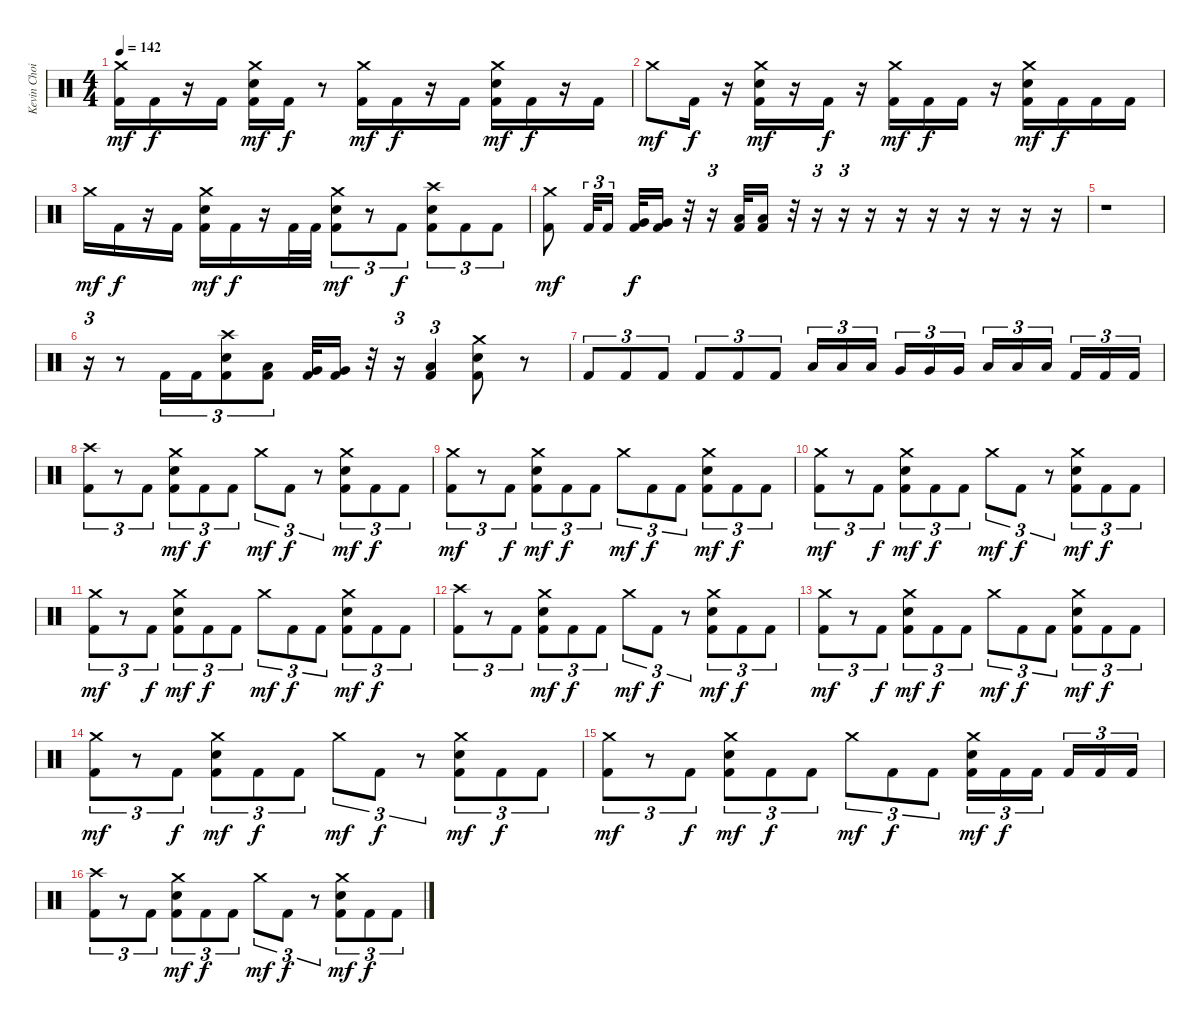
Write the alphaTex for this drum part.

\track ("Kevin Choiral" "Kevin Choi") {instrument percussion}
\staff
\articulation defaults
\ts (4 4)
\tempo 142
\clef neutral
\ks c
("Crash medium (hit)" "Kick (hit) 2").16{dy mf} "Kick (hit) 2".16{dy f} r.16 "Kick (hit) 2".16 ("Crash medium (hit)" "Electric Snare (hit)" "Kick (hit) 2").16{dy mf} "Kick (hit) 2".16{dy f} r.8 ("Crash medium (hit)" "Kick (hit) 2").16{dy mf} "Kick (hit) 2".16{dy f} r.16 "Kick (hit) 2".16 ("Crash medium (hit)" "Electric Snare (hit)" "Kick (hit) 2").16{dy mf} "Kick (hit) 2".16{dy f} r.16 "Kick (hit) 2".16 |
"Crash medium (hit)".8{dy mf} "Kick (hit) 2".16{dy f} r.16 ("Crash medium (hit)" "Electric Snare (hit)" "Kick (hit) 2").16{dy mf} r.16 "Kick (hit) 2".16{dy f} r.16 ("Crash medium (hit)" "Kick (hit) 2").16{dy mf} "Kick (hit) 2".16{dy f} "Kick (hit) 2".16 r.16 ("Crash medium (hit)" "Electric Snare (hit)" "Kick (hit) 2").16{dy mf} "Kick (hit) 2".16{dy f} "Kick (hit) 2".16 "Kick (hit) 2".16 |
"Crash medium (hit)".16{dy mf} "Kick (hit) 2".16{dy f} r.16 "Kick (hit) 2".16 ("Crash medium (hit)" "Electric Snare (hit)" "Kick (hit) 2").16{dy mf} "Kick (hit) 2".16{dy f} r.16 "Kick (hit) 2".32 "Kick (hit) 2".32 ("Crash medium (hit)" "Electric Snare (hit)" "Kick (hit) 2").8{tu (3 2) dy mf} r.8{tu (3 2)} "Kick (hit) 2".8{tu (3 2) dy f} ("Crash high (hit)" "Electric Snare (hit)" "Kick (hit) 2").8{tu (3 2)} "Kick (hit) 2".8{tu (3 2)} "Kick (hit) 2".8{tu (3 2)} |
("Crash medium (hit)" "Kick (hit) 2").8{dy mf} "Kick (hit) 2".32{tu (3 2)} "Kick (hit) 2".16{tu (3 2) beam splitsecondary} ("Very Low Tom (hit)" "Kick (hit) 2").32{dy f} ("Very Low Tom (hit)" "Kick (hit) 2").16 r.32 r.16{tu (3 2)} ("Low Floor Tom (hit)" "Kick (hit) 2").32 ("Low Floor Tom (hit)" "Kick (hit) 2").16 r.32 r.16{tu (3 2)} r.16{tu (3 2)} r.16 r.16 r.16 r.16 r.16 r.16 r.16 |
r.1 |
r.16{tu (3 2)} r.8 "Kick (hit) 2".16{tu (3 2)} "Kick (hit) 2".16{tu (3 2)} ("Crash high (hit)" "Electric Snare (hit)" "Kick (hit) 2").8{tu (3 2)} ("Low Tom (hit)" "Kick (hit) 2").8{tu (3 2)} ("Very Low Tom (hit)" "Kick (hit) 2").32 ("Very Low Tom (hit)" "Kick (hit) 2").16 r.32 r.16{tu (3 2)} ("Low Floor Tom (hit)" "Kick (hit) 2").4{tu (3 2)} ("Crash medium (hit)" "Electric Snare (hit)" "Kick (hit) 2").8 r.8 |
"Kick (hit) 2".8{tu (3 2)} "Kick (hit) 2".8{tu (3 2)} "Kick (hit) 2".8{tu (3 2)} "Kick (hit) 2".8{tu (3 2)} "Kick (hit) 2".8{tu (3 2)} "Kick (hit) 2".8{tu (3 2)} "Low Tom (hit)".16{tu (3 2)} "Low Tom (hit)".16{tu (3 2)} "Low Tom (hit)".16{tu (3 2) beam splitsecondary} "Very Low Tom (hit)".16{tu (3 2)} "Very Low Tom (hit)".16{tu (3 2)} "Very Low Tom (hit)".16{tu (3 2)} "Low Floor Tom (hit)".16{tu (3 2)} "Low Floor Tom (hit)".16{tu (3 2)} "Low Floor Tom (hit)".16{tu (3 2) beam splitsecondary} "Kick (hit) 2".16{tu (3 2)} "Kick (hit) 2".16{tu (3 2)} "Kick (hit) 2".16{tu (3 2)} |
("Crash high (hit)" "Kick (hit) 2").8{tu (3 2)} r.8{tu (3 2)} "Kick (hit) 2".8{tu (3 2)} ("Crash medium (hit)" "Electric Snare (hit)" "Kick (hit) 2").8{tu (3 2) dy mf} "Kick (hit) 2".8{tu (3 2) dy f} "Kick (hit) 2".8{tu (3 2)} "Crash medium (hit)".8{tu (3 2) dy mf} "Kick (hit) 2".8{tu (3 2) dy f} r.8{tu (3 2)} ("Crash medium (hit)" "Electric Snare (hit)" "Kick (hit) 2").8{tu (3 2) dy mf} "Kick (hit) 2".8{tu (3 2) dy f} "Kick (hit) 2".8{tu (3 2)} |
("Crash medium (hit)" "Kick (hit) 2").8{tu (3 2) dy mf} r.8{tu (3 2)} "Kick (hit) 2".8{tu (3 2) dy f} ("Crash medium (hit)" "Electric Snare (hit)" "Kick (hit) 2").8{tu (3 2) dy mf} "Kick (hit) 2".8{tu (3 2) dy f} "Kick (hit) 2".8{tu (3 2)} "Crash medium (hit)".8{tu (3 2) dy mf} "Kick (hit) 2".8{tu (3 2) dy f} "Kick (hit) 2".8{tu (3 2)} ("Crash medium (hit)" "Electric Snare (hit)" "Kick (hit) 2").8{tu (3 2) dy mf} "Kick (hit) 2".8{tu (3 2) dy f} "Kick (hit) 2".8{tu (3 2)} |
("Crash medium (hit)" "Kick (hit) 2").8{tu (3 2) dy mf} r.8{tu (3 2)} "Kick (hit) 2".8{tu (3 2) dy f} ("Crash medium (hit)" "Electric Snare (hit)" "Kick (hit) 2").8{tu (3 2) dy mf} "Kick (hit) 2".8{tu (3 2) dy f} "Kick (hit) 2".8{tu (3 2)} "Crash medium (hit)".8{tu (3 2) dy mf} "Kick (hit) 2".8{tu (3 2) dy f} r.8{tu (3 2)} ("Crash medium (hit)" "Electric Snare (hit)" "Kick (hit) 2").8{tu (3 2) dy mf} "Kick (hit) 2".8{tu (3 2) dy f} "Kick (hit) 2".8{tu (3 2)} |
("Crash medium (hit)" "Kick (hit) 2").8{tu (3 2) dy mf} r.8{tu (3 2)} "Kick (hit) 2".8{tu (3 2) dy f} ("Crash medium (hit)" "Electric Snare (hit)" "Kick (hit) 2").8{tu (3 2) dy mf} "Kick (hit) 2".8{tu (3 2) dy f} "Kick (hit) 2".8{tu (3 2)} "Crash medium (hit)".8{tu (3 2) dy mf} "Kick (hit) 2".8{tu (3 2) dy f} "Kick (hit) 2".8{tu (3 2)} ("Crash medium (hit)" "Electric Snare (hit)" "Kick (hit) 2").8{tu (3 2) dy mf} "Kick (hit) 2".8{tu (3 2) dy f} "Kick (hit) 2".8{tu (3 2)} |
("Crash high (hit)" "Kick (hit) 2").8{tu (3 2)} r.8{tu (3 2)} "Kick (hit) 2".8{tu (3 2)} ("Crash medium (hit)" "Electric Snare (hit)" "Kick (hit) 2").8{tu (3 2) dy mf} "Kick (hit) 2".8{tu (3 2) dy f} "Kick (hit) 2".8{tu (3 2)} "Crash medium (hit)".8{tu (3 2) dy mf} "Kick (hit) 2".8{tu (3 2) dy f} r.8{tu (3 2)} ("Crash medium (hit)" "Electric Snare (hit)" "Kick (hit) 2").8{tu (3 2) dy mf} "Kick (hit) 2".8{tu (3 2) dy f} "Kick (hit) 2".8{tu (3 2)} |
("Crash medium (hit)" "Kick (hit) 2").8{tu (3 2) dy mf} r.8{tu (3 2)} "Kick (hit) 2".8{tu (3 2) dy f} ("Crash medium (hit)" "Electric Snare (hit)" "Kick (hit) 2").8{tu (3 2) dy mf} "Kick (hit) 2".8{tu (3 2) dy f} "Kick (hit) 2".8{tu (3 2)} "Crash medium (hit)".8{tu (3 2) dy mf} "Kick (hit) 2".8{tu (3 2) dy f} "Kick (hit) 2".8{tu (3 2)} ("Crash medium (hit)" "Electric Snare (hit)" "Kick (hit) 2").8{tu (3 2) dy mf} "Kick (hit) 2".8{tu (3 2) dy f} "Kick (hit) 2".8{tu (3 2)} |
("Crash medium (hit)" "Kick (hit) 2").8{tu (3 2) dy mf} r.8{tu (3 2)} "Kick (hit) 2".8{tu (3 2) dy f} ("Crash medium (hit)" "Electric Snare (hit)" "Kick (hit) 2").8{tu (3 2) dy mf} "Kick (hit) 2".8{tu (3 2) dy f} "Kick (hit) 2".8{tu (3 2)} "Crash medium (hit)".8{tu (3 2) dy mf} "Kick (hit) 2".8{tu (3 2) dy f} r.8{tu (3 2)} ("Crash medium (hit)" "Electric Snare (hit)" "Kick (hit) 2").8{tu (3 2) dy mf} "Kick (hit) 2".8{tu (3 2) dy f} "Kick (hit) 2".8{tu (3 2)} |
("Crash medium (hit)" "Kick (hit) 2").8{tu (3 2) dy mf} r.8{tu (3 2)} "Kick (hit) 2".8{tu (3 2) dy f} ("Crash medium (hit)" "Electric Snare (hit)" "Kick (hit) 2").8{tu (3 2) dy mf} "Kick (hit) 2".8{tu (3 2) dy f} "Kick (hit) 2".8{tu (3 2)} "Crash medium (hit)".8{tu (3 2) dy mf} "Kick (hit) 2".8{tu (3 2) dy f} "Kick (hit) 2".8{tu (3 2)} ("Crash medium (hit)" "Electric Snare (hit)" "Kick (hit) 2").16{tu (3 2) dy mf} "Kick (hit) 2".16{tu (3 2) dy f} "Kick (hit) 2".16{tu (3 2) beam splitsecondary} "Kick (hit) 2".16{tu (3 2)} "Kick (hit) 2".16{tu (3 2)} "Kick (hit) 2".16{tu (3 2)} |
("Crash high (hit)" "Kick (hit) 2").8{tu (3 2)} r.8{tu (3 2)} "Kick (hit) 2".8{tu (3 2)} ("Crash medium (hit)" "Electric Snare (hit)" "Kick (hit) 2").8{tu (3 2) dy mf} "Kick (hit) 2".8{tu (3 2) dy f} "Kick (hit) 2".8{tu (3 2)} "Crash medium (hit)".8{tu (3 2) dy mf} "Kick (hit) 2".8{tu (3 2) dy f} r.8{tu (3 2)} ("Crash medium (hit)" "Electric Snare (hit)" "Kick (hit) 2").8{tu (3 2) dy mf} "Kick (hit) 2".8{tu (3 2) dy f} "Kick (hit) 2".8{tu (3 2)}
